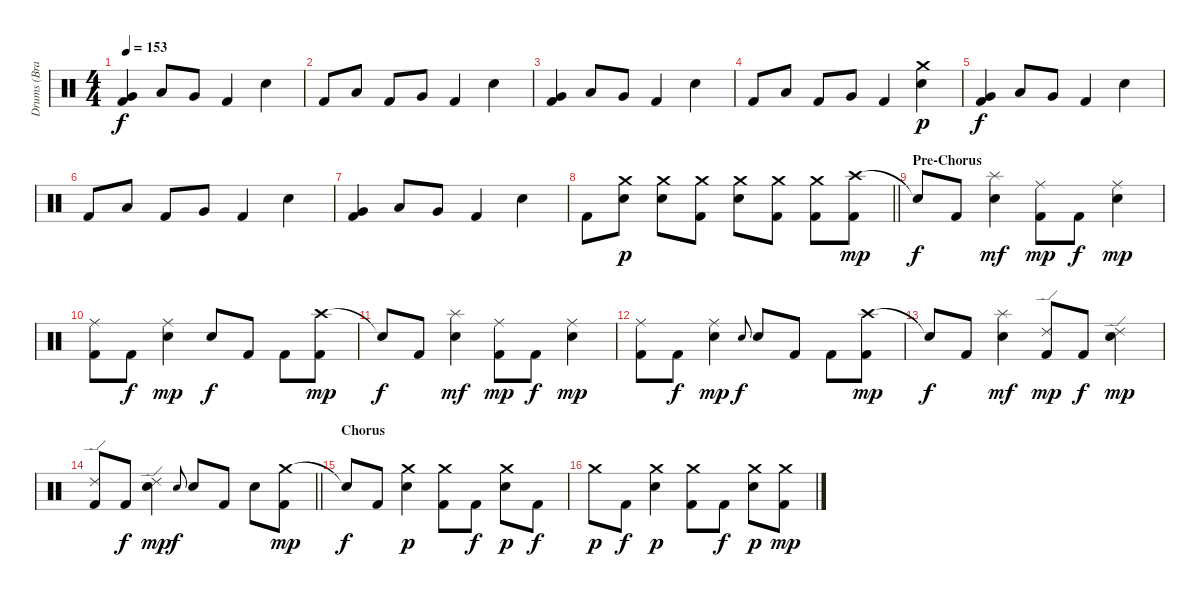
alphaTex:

\track ("Drums (Brandon Saller)" "Drums (Bra") {instrument percussion}
\staff {score}
\articulation defaults
\ts (4 4)
\tempo 153
\clef neutral
\ks c
("Very Low Tom (hit)" "Kick (hit) 2").4{dy f} "Low Tom (hit)".8 "Very Low Tom (hit)".8 "Kick (hit) 2".4 "Electric Snare (hit)".4 |
"Kick (hit) 2".8 "Low Tom (hit)".8 "Kick (hit) 2".8 "Very Low Tom (hit)".8 "Kick (hit) 2".4 "Electric Snare (hit)".4 |
("Very Low Tom (hit)" "Kick (hit) 2").4 "Low Tom (hit)".8 "Very Low Tom (hit)".8 "Kick (hit) 2".4 "Electric Snare (hit)".4 |
"Kick (hit) 2".8 "Low Tom (hit)".8 "Kick (hit) 2".8 "Very Low Tom (hit)".8 "Kick (hit) 2".4 ("Crash medium (hit)" "Electric Snare (hit)").4{dy p} |
("Very Low Tom (hit)" "Kick (hit) 2").4{dy f} "Low Tom (hit)".8 "Very Low Tom (hit)".8 "Kick (hit) 2".4 "Electric Snare (hit)".4 |
"Kick (hit) 2".8 "Low Tom (hit)".8 "Kick (hit) 2".8 "Very Low Tom (hit)".8 "Kick (hit) 2".4 "Electric Snare (hit)".4 |
("Very Low Tom (hit)" "Kick (hit) 2").4 "Low Tom (hit)".8 "Very Low Tom (hit)".8 "Kick (hit) 2".4 "Electric Snare (hit)".4 |
\barLineRight lightlight "Kick (hit) 2".8
("Crash medium (hit)" "Electric Snare (hit)").8{dy p} ("Crash medium (hit)" "Electric Snare (hit)").8 ("Crash medium (hit)" "Kick (hit) 2").8 ("Crash medium (hit)" "Electric Snare (hit)").8 ("Crash medium (hit)" "Kick (hit) 2").8 ("Crash medium (hit)" "Kick (hit) 2").8 ("Crash high (hit)" "Kick (hit) 2").8{dy mp} |
\section ("" "Pre-Chorus")
"Snare (hit)"{t}.8{dy f} "Kick (hit) 2".8 ("Splash (hit)" "Electric Snare (hit)").4{dy mf} ("Ride (middle)" "Kick (hit) 2").8{dy mp} "Kick (hit) 2".8{dy f} ("Ride (middle)" "Electric Snare (hit)").4{dy mp} |
("Ride (middle)" "Kick (hit) 2").8 "Kick (hit) 2".8{dy f} ("Ride (middle)" "Electric Snare (hit)").4{dy mp} "Electric Snare (hit)".8{dy f} "Kick (hit) 2".8 "Kick (hit) 2".8 ("Crash high (hit)" "Kick (hit) 2").8{dy mp} |
"Snare (hit)"{t}.8{dy f} "Kick (hit) 2".8 ("Splash (hit)" "Electric Snare (hit)").4{dy mf} ("Ride (middle)" "Kick (hit) 2").8{dy mp} "Kick (hit) 2".8{dy f} ("Ride (middle)" "Electric Snare (hit)").4{dy mp} |
("Ride (middle)" "Kick (hit) 2").8 "Kick (hit) 2".8{dy f} ("Ride (middle)" "Electric Snare (hit)").4{dy mp} "Electric Snare (hit)".8{gr onbeat dy f} "Electric Snare (hit)".8 "Kick (hit) 2".8 "Kick (hit) 2".8 ("Crash high (hit)" "Kick (hit) 2").8{dy mp} |
"Snare (hit)"{t}.8{dy f} "Kick (hit) 2".8 ("Splash (hit)" "Electric Snare (hit)").4{dy mf} ("Ride (edge) 2" "Kick (hit) 2").8{dy mp} "Kick (hit) 2".8{dy f} ("Ride (edge) 2" "Electric Snare (hit)").4{dy mp} |
\barLineRight lightlight
("Ride (edge) 2" "Kick (hit) 2").8 "Kick (hit) 2".8{dy f} ("Ride (edge) 2" "Electric Snare (hit)").4{dy mp} "Electric Snare (hit)".8{gr onbeat dy f} "Electric Snare (hit)".8 "Kick (hit) 2".8 "Electric Snare (hit)".8 ("Crash medium (hit)" "Kick (hit) 2").8{dy mp} |
\section ("" "Chorus")
"Snare (hit)"{t}.8{dy f} "Kick (hit) 2".8 ("Crash medium (hit)" "Electric Snare (hit)").4{dy p} ("Crash medium (hit)" "Kick (hit) 2").8 "Kick (hit) 2".8{dy f} ("Crash medium (hit)" "Electric Snare (hit)").8{dy p} "Kick (hit) 2".8{dy f} |
"Crash medium (hit)".8{dy p} "Kick (hit) 2".8{dy f} ("Crash medium (hit)" "Electric Snare (hit)").4{dy p} ("Crash medium (hit)" "Kick (hit) 2").8 "Kick (hit) 2".8{dy f} ("Crash medium (hit)" "Electric Snare (hit)").8{dy p} ("Crash medium (hit)" "Kick (hit) 2").8{dy mp}
